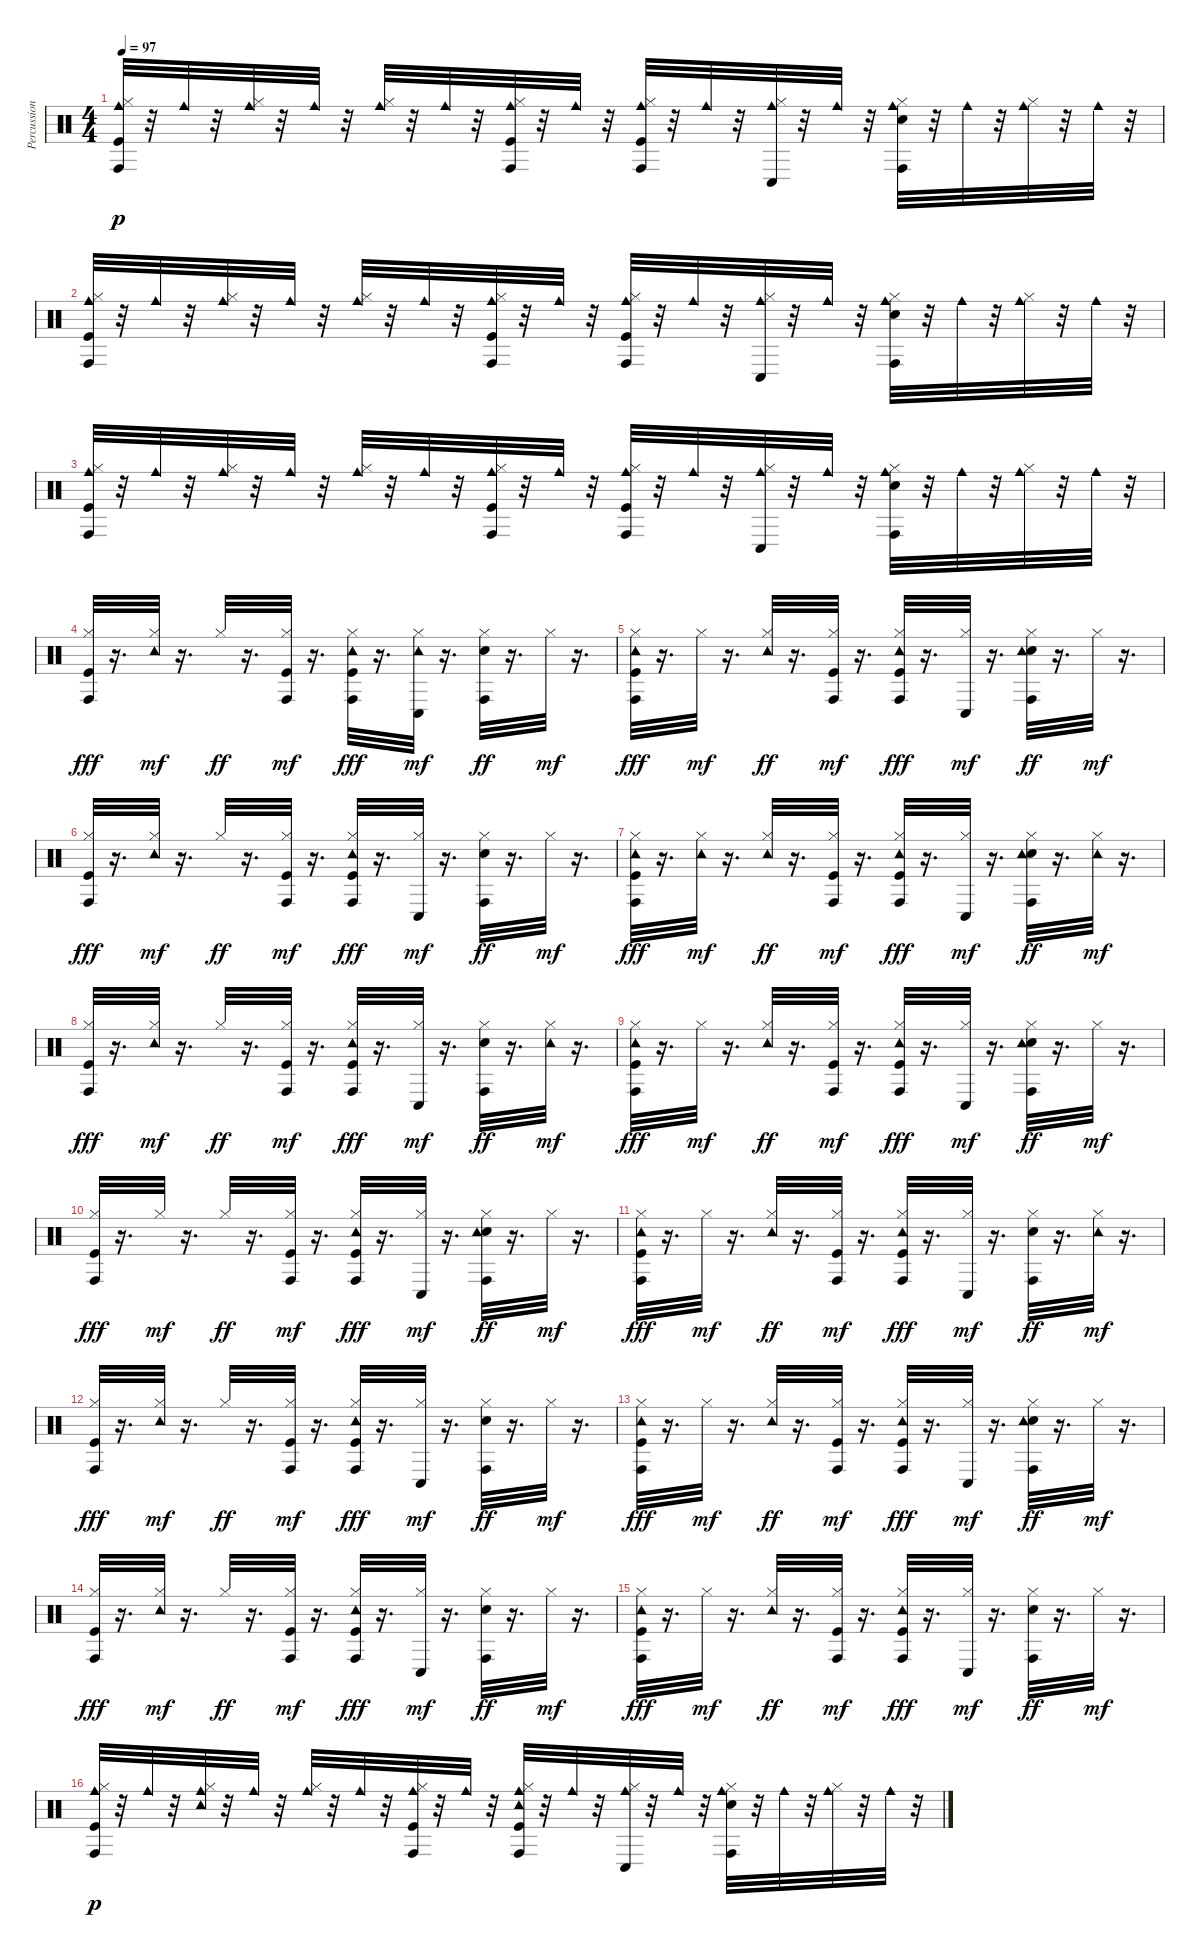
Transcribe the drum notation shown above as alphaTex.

\track ("Percussion" "Percussion") {instrument percussion}
\staff {score}
\articulation defaults
\ts (4 4)
\tempo 97
\clef neutral
\ks c
("Kick (hit)" "Hi-Hat (closed)" "Cowbell medium (hit)" "Conga high (hit)").32{dy p} r.32 "Cowbell medium (hit)".32 r.32 ("Hi-Hat (closed)" "Cowbell medium (hit)").32 r.32 "Cowbell medium (hit)".32 r.32 ("Hi-Hat (closed)" "Cowbell medium (hit)").32 r.32 "Cowbell medium (hit)".32 r.32 ("Kick (hit)" "Hi-Hat (closed)" "Cowbell medium (hit)" "Conga high (hit)").32 r.32 "Cowbell medium (hit)".32 r.32 ("Kick (hit)" "Hi-Hat (closed)" "Cowbell medium (hit)" "Conga high (hit)").32 r.32 "Cowbell medium (hit)".32 r.32 ("Conga low (hit)" "Hi-Hat (closed)" "Cowbell medium (hit)").32 r.32 "Cowbell medium (hit)".32 r.32 ("Conga high (hit)" "Snare (hit) 2" "Hi-Hat (closed)" "Cowbell medium (hit)").32 r.32 "Cowbell medium (hit)".32 r.32 ("Hi-Hat (closed)" "Cowbell medium (hit)").32 r.32 "Cowbell medium (hit)".32 r.32 |
("Kick (hit)" "Hi-Hat (closed)" "Cowbell medium (hit)" "Conga high (hit)").32 r.32 "Cowbell medium (hit)".32 r.32 ("Hi-Hat (closed)" "Cowbell medium (hit)").32 r.32 "Cowbell medium (hit)".32 r.32 ("Hi-Hat (closed)" "Cowbell medium (hit)").32 r.32 "Cowbell medium (hit)".32 r.32 ("Kick (hit)" "Hi-Hat (closed)" "Cowbell medium (hit)" "Conga high (hit)").32 r.32 "Cowbell medium (hit)".32 r.32 ("Kick (hit)" "Hi-Hat (closed)" "Cowbell medium (hit)" "Conga high (hit)").32 r.32 "Cowbell medium (hit)".32 r.32 ("Conga low (hit)" "Hi-Hat (closed)" "Cowbell medium (hit)").32 r.32 "Cowbell medium (hit)".32 r.32 ("Conga high (hit)" "Snare (hit) 2" "Hi-Hat (closed)" "Cowbell medium (hit)").32 r.32 "Cowbell medium (hit)".32 r.32 ("Hi-Hat (closed)" "Cowbell medium (hit)").32 r.32 "Cowbell medium (hit)".32 r.32 |
("Kick (hit)" "Hi-Hat (closed)" "Cowbell medium (hit)" "Conga high (hit)").32 r.32 "Cowbell medium (hit)".32 r.32 ("Hi-Hat (closed)" "Cowbell medium (hit)").32 r.32 "Cowbell medium (hit)".32 r.32 ("Hi-Hat (closed)" "Cowbell medium (hit)").32 r.32 "Cowbell medium (hit)".32 r.32 ("Kick (hit)" "Hi-Hat (closed)" "Cowbell medium (hit)" "Conga high (hit)").32 r.32 "Cowbell medium (hit)".32 r.32 ("Kick (hit)" "Hi-Hat (closed)" "Cowbell medium (hit)" "Conga high (hit)").32 r.32 "Cowbell medium (hit)".32 r.32 ("Conga low (hit)" "Hi-Hat (closed)" "Cowbell medium (hit)").32 r.32 "Cowbell medium (hit)".32 r.32 ("Conga high (hit)" "Snare (hit) 2" "Hi-Hat (closed)" "Cowbell medium (hit)").32 r.32 "Cowbell medium (hit)".32 r.32 ("Hi-Hat (closed)" "Cowbell medium (hit)").32 r.32 "Cowbell medium (hit)".32 r.32 |
("Kick (hit)" "Hi-Hat (closed)" "Conga high (hit)").32{dy fff} r.16{d} ("Hi-Hat (closed)" "Tambourine (hit)").32{dy mf} r.16{d} "Hi-Hat (closed)".32{dy ff} r.16{d} ("Kick (hit)" "Hi-Hat (closed)" "Conga high (hit)").32{dy mf} r.16{d} ("Kick (hit)" "Hi-Hat (closed)" "Tambourine (hit)" "Conga high (hit)").32{dy fff} r.16{d} ("Conga low (hit)" "Hi-Hat (closed)" "Tambourine (hit)").32{dy mf} r.16{d} ("Conga high (hit)" "Snare (hit) 2" "Hi-Hat (closed)").32{dy ff} r.16{d} "Hi-Hat (closed)".32{dy mf} r.16{d} |
("Kick (hit)" "Hi-Hat (closed)" "Tambourine (hit)" "Conga high (hit)").32{dy fff} r.16{d} "Hi-Hat (closed)".32{dy mf} r.16{d} ("Hi-Hat (closed)" "Tambourine (hit)").32{dy ff} r.16{d} ("Kick (hit)" "Hi-Hat (closed)" "Conga high (hit)").32{dy mf} r.16{d} ("Kick (hit)" "Hi-Hat (closed)" "Tambourine (hit)" "Conga high (hit)").32{dy fff} r.16{d} ("Conga low (hit)" "Hi-Hat (closed)").32{dy mf} r.16{d} ("Conga high (hit)" "Snare (hit) 2" "Hi-Hat (closed)" "Tambourine (hit)").32{dy ff} r.16{d} "Hi-Hat (closed)".32{dy mf} r.16{d} |
("Kick (hit)" "Hi-Hat (closed)" "Conga high (hit)").32{dy fff} r.16{d} ("Hi-Hat (closed)" "Tambourine (hit)").32{dy mf} r.16{d} "Hi-Hat (closed)".32{dy ff} r.16{d} ("Kick (hit)" "Hi-Hat (closed)" "Conga high (hit)").32{dy mf} r.16{d} ("Kick (hit)" "Hi-Hat (closed)" "Tambourine (hit)" "Conga high (hit)").32{dy fff} r.16{d} ("Conga low (hit)" "Hi-Hat (closed)").32{dy mf} r.16{d} ("Conga high (hit)" "Snare (hit) 2" "Hi-Hat (closed)").32{dy ff} r.16{d} "Hi-Hat (closed)".32{dy mf} r.16{d} |
("Kick (hit)" "Hi-Hat (closed)" "Tambourine (hit)" "Conga high (hit)").32{dy fff} r.16{d} ("Hi-Hat (closed)" "Tambourine (hit)").32{dy mf} r.16{d} ("Hi-Hat (closed)" "Tambourine (hit)").32{dy ff} r.16{d} ("Kick (hit)" "Hi-Hat (closed)" "Conga high (hit)").32{dy mf} r.16{d} ("Kick (hit)" "Hi-Hat (closed)" "Tambourine (hit)" "Conga high (hit)").32{dy fff} r.16{d} ("Conga low (hit)" "Hi-Hat (closed)").32{dy mf} r.16{d} ("Conga high (hit)" "Snare (hit) 2" "Hi-Hat (closed)" "Tambourine (hit)").32{dy ff} r.16{d} ("Hi-Hat (closed)" "Tambourine (hit)").32{dy mf} r.16{d} |
("Kick (hit)" "Hi-Hat (closed)" "Conga high (hit)").32{dy fff} r.16{d} ("Hi-Hat (closed)" "Tambourine (hit)").32{dy mf} r.16{d} "Hi-Hat (closed)".32{dy ff} r.16{d} ("Kick (hit)" "Hi-Hat (closed)" "Conga high (hit)").32{dy mf} r.16{d} ("Kick (hit)" "Hi-Hat (closed)" "Tambourine (hit)" "Conga high (hit)").32{dy fff} r.16{d} ("Conga low (hit)" "Hi-Hat (closed)").32{dy mf} r.16{d} ("Conga high (hit)" "Snare (hit) 2" "Hi-Hat (closed)").32{dy ff} r.16{d} ("Hi-Hat (closed)" "Tambourine (hit)").32{dy mf} r.16{d} |
("Kick (hit)" "Hi-Hat (closed)" "Tambourine (hit)" "Conga high (hit)").32{dy fff} r.16{d} "Hi-Hat (closed)".32{dy mf} r.16{d} ("Hi-Hat (closed)" "Tambourine (hit)").32{dy ff} r.16{d} ("Kick (hit)" "Hi-Hat (closed)" "Conga high (hit)").32{dy mf} r.16{d} ("Kick (hit)" "Hi-Hat (closed)" "Tambourine (hit)" "Conga high (hit)").32{dy fff} r.16{d} ("Conga low (hit)" "Hi-Hat (closed)").32{dy mf} r.16{d} ("Conga high (hit)" "Snare (hit) 2" "Hi-Hat (closed)" "Tambourine (hit)").32{dy ff} r.16{d} "Hi-Hat (closed)".32{dy mf} r.16{d} |
("Kick (hit)" "Hi-Hat (closed)" "Conga high (hit)").32{dy fff} r.16{d} "Hi-Hat (closed)".32{dy mf} r.16{d} "Hi-Hat (closed)".32{dy ff} r.16{d} ("Kick (hit)" "Hi-Hat (closed)" "Conga high (hit)").32{dy mf} r.16{d} ("Kick (hit)" "Hi-Hat (closed)" "Tambourine (hit)" "Conga high (hit)").32{dy fff} r.16{d} ("Conga low (hit)" "Hi-Hat (closed)").32{dy mf} r.16{d} ("Conga high (hit)" "Snare (hit) 2" "Hi-Hat (closed)" "Tambourine (hit)").32{dy ff} r.16{d} "Hi-Hat (closed)".32{dy mf} r.16{d} |
("Kick (hit)" "Hi-Hat (closed)" "Tambourine (hit)" "Conga high (hit)").32{dy fff} r.16{d} "Hi-Hat (closed)".32{dy mf} r.16{d} ("Hi-Hat (closed)" "Tambourine (hit)").32{dy ff} r.16{d} ("Kick (hit)" "Hi-Hat (closed)" "Conga high (hit)").32{dy mf} r.16{d} ("Kick (hit)" "Hi-Hat (closed)" "Tambourine (hit)" "Conga high (hit)").32{dy fff} r.16{d} ("Conga low (hit)" "Hi-Hat (closed)").32{dy mf} r.16{d} ("Conga high (hit)" "Snare (hit) 2" "Hi-Hat (closed)").32{dy ff} r.16{d} ("Hi-Hat (closed)" "Tambourine (hit)").32{dy mf} r.16{d} |
("Kick (hit)" "Hi-Hat (closed)" "Conga high (hit)").32{dy fff} r.16{d} ("Hi-Hat (closed)" "Tambourine (hit)").32{dy mf} r.16{d} "Hi-Hat (closed)".32{dy ff} r.16{d} ("Kick (hit)" "Hi-Hat (closed)" "Conga high (hit)").32{dy mf} r.16{d} ("Kick (hit)" "Hi-Hat (closed)" "Tambourine (hit)" "Conga high (hit)").32{dy fff} r.16{d} ("Conga low (hit)" "Hi-Hat (closed)").32{dy mf} r.16{d} ("Conga high (hit)" "Snare (hit) 2" "Hi-Hat (closed)").32{dy ff} r.16{d} "Hi-Hat (closed)".32{dy mf} r.16{d} |
("Kick (hit)" "Hi-Hat (closed)" "Tambourine (hit)" "Conga high (hit)").32{dy fff} r.16{d} "Hi-Hat (closed)".32{dy mf} r.16{d} ("Hi-Hat (closed)" "Tambourine (hit)").32{dy ff} r.16{d} ("Kick (hit)" "Hi-Hat (closed)" "Conga high (hit)").32{dy mf} r.16{d} ("Kick (hit)" "Hi-Hat (closed)" "Tambourine (hit)" "Conga high (hit)").32{dy fff} r.16{d} ("Conga low (hit)" "Hi-Hat (closed)").32{dy mf} r.16{d} ("Conga high (hit)" "Snare (hit) 2" "Hi-Hat (closed)" "Tambourine (hit)").32{dy ff} r.16{d} "Hi-Hat (closed)".32{dy mf} r.16{d} |
("Kick (hit)" "Hi-Hat (closed)" "Conga high (hit)").32{dy fff} r.16{d} ("Hi-Hat (closed)" "Tambourine (hit)").32{dy mf} r.16{d} "Hi-Hat (closed)".32{dy ff} r.16{d} ("Kick (hit)" "Hi-Hat (closed)" "Conga high (hit)").32{dy mf} r.16{d} ("Kick (hit)" "Hi-Hat (closed)" "Tambourine (hit)" "Conga high (hit)").32{dy fff} r.16{d} ("Conga low (hit)" "Hi-Hat (closed)").32{dy mf} r.16{d} ("Conga high (hit)" "Snare (hit) 2" "Hi-Hat (closed)").32{dy ff} r.16{d} "Hi-Hat (closed)".32{dy mf} r.16{d} |
("Kick (hit)" "Hi-Hat (closed)" "Tambourine (hit)" "Conga high (hit)").32{dy fff} r.16{d} "Hi-Hat (closed)".32{dy mf} r.16{d} ("Hi-Hat (closed)" "Tambourine (hit)").32{dy ff} r.16{d} ("Kick (hit)" "Hi-Hat (closed)" "Conga high (hit)").32{dy mf} r.16{d} ("Kick (hit)" "Hi-Hat (closed)" "Tambourine (hit)" "Conga high (hit)").32{dy fff} r.16{d} ("Conga low (hit)" "Hi-Hat (closed)").32{dy mf} r.16{d} ("Conga high (hit)" "Snare (hit) 2" "Hi-Hat (closed)").32{dy ff} r.16{d} "Hi-Hat (closed)".32{dy mf} r.16{d} |
("Kick (hit)" "Hi-Hat (closed)" "Cowbell medium (hit)" "Conga high (hit)").32{dy p} r.32 "Cowbell medium (hit)".32 r.32 ("Hi-Hat (closed)" "Tambourine (hit)" "Cowbell medium (hit)").32 r.32 "Cowbell medium (hit)".32 r.32 ("Hi-Hat (closed)" "Cowbell medium (hit)").32 r.32 "Cowbell medium (hit)".32 r.32 ("Kick (hit)" "Hi-Hat (closed)" "Cowbell medium (hit)" "Conga high (hit)").32 r.32 "Cowbell medium (hit)".32 r.32 ("Kick (hit)" "Hi-Hat (closed)" "Tambourine (hit)" "Cowbell medium (hit)" "Conga high (hit)").32 r.32 "Cowbell medium (hit)".32 r.32 ("Conga low (hit)" "Hi-Hat (closed)" "Cowbell medium (hit)").32 r.32 "Cowbell medium (hit)".32 r.32 ("Conga high (hit)" "Snare (hit) 2" "Hi-Hat (closed)" "Cowbell medium (hit)").32 r.32 "Cowbell medium (hit)".32 r.32 ("Hi-Hat (closed)" "Cowbell medium (hit)").32 r.32 "Cowbell medium (hit)".32 r.32
